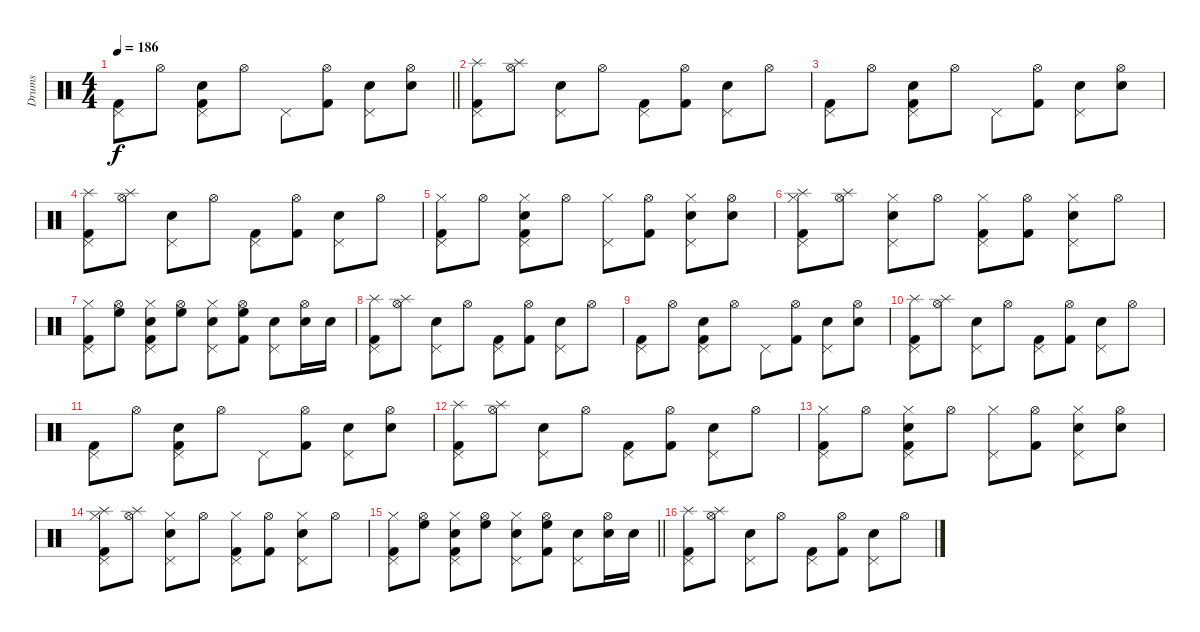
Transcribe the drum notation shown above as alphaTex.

\track ("Drums" "Drums") {instrument percussion}
\staff {score}
\articulation defaults
\ts (4 4)
\tempo 186
\clef neutral
\barLineRight lightlight
\ks c
("Pedal Hi-Hat (hit)" "Kick (hit) 2").8{dy f} "Hi-Hat (open)".8 ("Pedal Hi-Hat (hit)" "Snare (hit) 2" "Kick (hit) 2").8 "Hi-Hat (open)".8 "Pedal Hi-Hat (hit)".8 ("Hi-Hat (open)" "Kick (hit) 2").8 ("Pedal Hi-Hat (hit)" "Snare (hit) 2").8 ("Hi-Hat (open)" "Snare (hit) 2").8 |
("Pedal Hi-Hat (hit)" "Splash (hit)" "Kick (hit) 2").8 ("Hi-Hat (open)" "Splash (hit)").8 ("Pedal Hi-Hat (hit)" "Snare (hit) 2").8 "Hi-Hat (open)".8 ("Pedal Hi-Hat (hit)" "Kick (hit) 2").8 ("Hi-Hat (open)" "Kick (hit) 2").8 ("Pedal Hi-Hat (hit)" "Snare (hit) 2").8 "Hi-Hat (open)".8 |
("Pedal Hi-Hat (hit)" "Kick (hit) 2").8 "Hi-Hat (open)".8 ("Pedal Hi-Hat (hit)" "Snare (hit) 2" "Kick (hit) 2").8 "Hi-Hat (open)".8 "Pedal Hi-Hat (hit)".8 ("Hi-Hat (open)" "Kick (hit) 2").8 ("Pedal Hi-Hat (hit)" "Snare (hit) 2").8 ("Hi-Hat (open)" "Snare (hit) 2").8 |
("Pedal Hi-Hat (hit)" "Splash (hit)" "Kick (hit) 2").8 ("Hi-Hat (open)" "Splash (hit)").8 ("Pedal Hi-Hat (hit)" "Snare (hit) 2").8 "Hi-Hat (open)".8 ("Pedal Hi-Hat (hit)" "Kick (hit) 2").8 ("Hi-Hat (open)" "Kick (hit) 2").8 ("Pedal Hi-Hat (hit)" "Snare (hit) 2").8 "Hi-Hat (open)".8 |
("Pedal Hi-Hat (hit)" "Hi-Hat (closed)" "Kick (hit) 2").8 "Hi-Hat (open)".8 ("Pedal Hi-Hat (hit)" "Hi-Hat (closed)" "Snare (hit) 2" "Kick (hit) 2").8 "Hi-Hat (open)".8 ("Pedal Hi-Hat (hit)" "Hi-Hat (closed)").8 ("Hi-Hat (open)" "Kick (hit) 2").8 ("Pedal Hi-Hat (hit)" "Hi-Hat (closed)" "Snare (hit) 2").8 ("Hi-Hat (open)" "Snare (hit) 2").8 |
("Pedal Hi-Hat (hit)" "Hi-Hat (closed)" "Splash (hit)" "Kick (hit) 2").8 ("Hi-Hat (open)" "Splash (hit)").8 ("Pedal Hi-Hat (hit)" "Hi-Hat (closed)" "Snare (hit) 2").8 "Hi-Hat (open)".8 ("Pedal Hi-Hat (hit)" "Hi-Hat (closed)" "Kick (hit) 2").8 ("Hi-Hat (open)" "Kick (hit) 2").8 ("Pedal Hi-Hat (hit)" "Hi-Hat (closed)" "Snare (hit) 2").8 "Hi-Hat (open)".8 |
("Pedal Hi-Hat (hit)" "Hi-Hat (closed)" "Kick (hit) 2").8 ("Hi-Hat (open)" "High Floor Tom (hit)").8 ("Pedal Hi-Hat (hit)" "Hi-Hat (closed)" "Snare (hit) 2" "Kick (hit) 2").8 ("Hi-Hat (open)" "High Floor Tom (hit)").8 ("Pedal Hi-Hat (hit)" "Hi-Hat (closed)" "Snare (hit) 2").8 ("Hi-Hat (open)" "High Floor Tom (hit)" "Kick (hit) 2").8 ("Pedal Hi-Hat (hit)" "Snare (hit) 2").8 ("Hi-Hat (open)" "Snare (hit) 2").16 "Snare (hit) 2".16 |
("Pedal Hi-Hat (hit)" "Splash (hit)" "Kick (hit) 2").8 ("Hi-Hat (open)" "Splash (hit)").8 ("Pedal Hi-Hat (hit)" "Snare (hit) 2").8 "Hi-Hat (open)".8 ("Pedal Hi-Hat (hit)" "Kick (hit) 2").8 ("Hi-Hat (open)" "Kick (hit) 2").8 ("Pedal Hi-Hat (hit)" "Snare (hit) 2").8 "Hi-Hat (open)".8 |
("Pedal Hi-Hat (hit)" "Kick (hit) 2").8 "Hi-Hat (open)".8 ("Pedal Hi-Hat (hit)" "Snare (hit) 2" "Kick (hit) 2").8 "Hi-Hat (open)".8 "Pedal Hi-Hat (hit)".8 ("Hi-Hat (open)" "Kick (hit) 2").8 ("Pedal Hi-Hat (hit)" "Snare (hit) 2").8 ("Hi-Hat (open)" "Snare (hit) 2").8 |
("Pedal Hi-Hat (hit)" "Splash (hit)" "Kick (hit) 2").8 ("Hi-Hat (open)" "Splash (hit)").8 ("Pedal Hi-Hat (hit)" "Snare (hit) 2").8 "Hi-Hat (open)".8 ("Pedal Hi-Hat (hit)" "Kick (hit) 2").8 ("Hi-Hat (open)" "Kick (hit) 2").8 ("Pedal Hi-Hat (hit)" "Snare (hit) 2").8 "Hi-Hat (open)".8 |
("Pedal Hi-Hat (hit)" "Kick (hit) 2").8 "Hi-Hat (open)".8 ("Pedal Hi-Hat (hit)" "Snare (hit) 2" "Kick (hit) 2").8 "Hi-Hat (open)".8 "Pedal Hi-Hat (hit)".8 ("Hi-Hat (open)" "Kick (hit) 2").8 ("Pedal Hi-Hat (hit)" "Snare (hit) 2").8 ("Hi-Hat (open)" "Snare (hit) 2").8 |
("Pedal Hi-Hat (hit)" "Splash (hit)" "Kick (hit) 2").8 ("Hi-Hat (open)" "Splash (hit)").8 ("Pedal Hi-Hat (hit)" "Snare (hit) 2").8 "Hi-Hat (open)".8 ("Pedal Hi-Hat (hit)" "Kick (hit) 2").8 ("Hi-Hat (open)" "Kick (hit) 2").8 ("Pedal Hi-Hat (hit)" "Snare (hit) 2").8 "Hi-Hat (open)".8 |
("Pedal Hi-Hat (hit)" "Hi-Hat (closed)" "Kick (hit) 2").8 "Hi-Hat (open)".8 ("Pedal Hi-Hat (hit)" "Hi-Hat (closed)" "Snare (hit) 2" "Kick (hit) 2").8 "Hi-Hat (open)".8 ("Pedal Hi-Hat (hit)" "Hi-Hat (closed)").8 ("Hi-Hat (open)" "Kick (hit) 2").8 ("Pedal Hi-Hat (hit)" "Hi-Hat (closed)" "Snare (hit) 2").8 ("Hi-Hat (open)" "Snare (hit) 2").8 |
("Pedal Hi-Hat (hit)" "Hi-Hat (closed)" "Splash (hit)" "Kick (hit) 2").8 ("Hi-Hat (open)" "Splash (hit)").8 ("Pedal Hi-Hat (hit)" "Hi-Hat (closed)" "Snare (hit) 2").8 "Hi-Hat (open)".8 ("Pedal Hi-Hat (hit)" "Hi-Hat (closed)" "Kick (hit) 2").8 ("Hi-Hat (open)" "Kick (hit) 2").8 ("Pedal Hi-Hat (hit)" "Hi-Hat (closed)" "Snare (hit) 2").8 "Hi-Hat (open)".8 |
\barLineRight lightlight
("Pedal Hi-Hat (hit)" "Hi-Hat (closed)" "Kick (hit) 2").8 ("Hi-Hat (open)" "High Floor Tom (hit)").8 ("Pedal Hi-Hat (hit)" "Hi-Hat (closed)" "Snare (hit) 2" "Kick (hit) 2").8 ("Hi-Hat (open)" "High Floor Tom (hit)").8 ("Pedal Hi-Hat (hit)" "Hi-Hat (closed)" "Snare (hit) 2").8 ("Hi-Hat (open)" "High Floor Tom (hit)" "Kick (hit) 2").8 ("Pedal Hi-Hat (hit)" "Snare (hit) 2").8 ("Hi-Hat (open)" "Snare (hit) 2").16 "Snare (hit) 2".16 |
("Pedal Hi-Hat (hit)" "Splash (hit)" "Kick (hit) 2").8 ("Hi-Hat (open)" "Splash (hit)").8 ("Pedal Hi-Hat (hit)" "Snare (hit) 2").8 "Hi-Hat (open)".8 ("Pedal Hi-Hat (hit)" "Kick (hit) 2").8 ("Hi-Hat (open)" "Kick (hit) 2").8 ("Pedal Hi-Hat (hit)" "Snare (hit) 2").8 "Hi-Hat (open)".8
